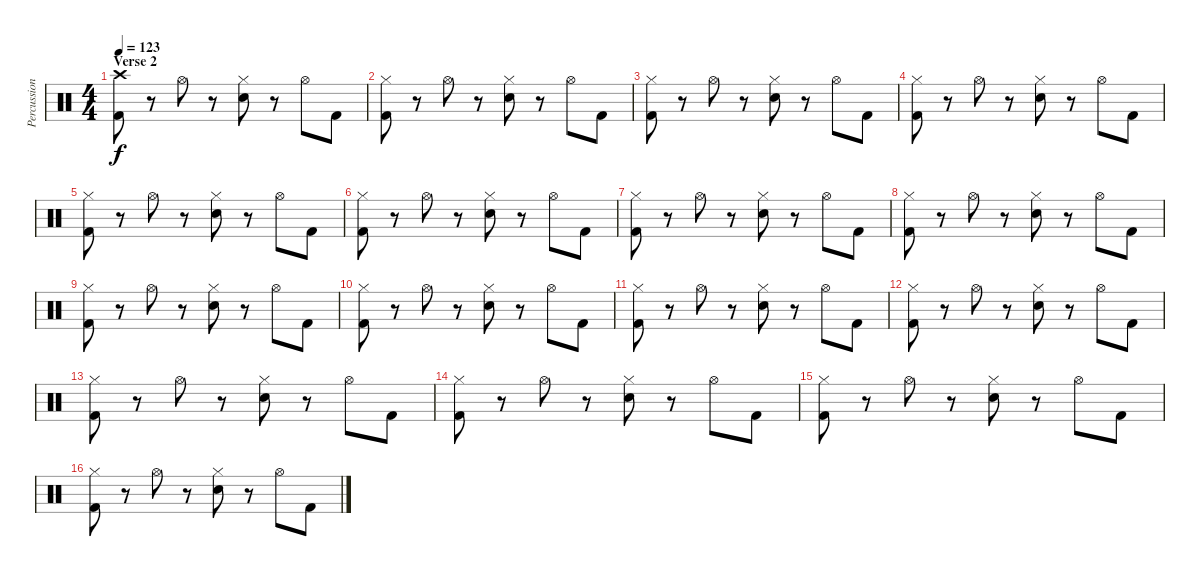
\track ("Percussion" "Percussion") {instrument percussion}
\staff {score}
\articulation defaults
\ts (4 4)
\section ("" "Verse 2")
\tempo 123
\clef neutral
\ks c
("Crash high (hit)" "Kick (hit) 2").8{dy f} r.8 "Hi-Hat (open)".8 r.8 ("Hi-Hat (closed)" "Snare (hit) 2").8 r.8 "Hi-Hat (open)".8 "Kick (hit) 2".8 |
("Hi-Hat (closed)" "Kick (hit) 2").8 r.8 "Hi-Hat (open)".8 r.8 ("Hi-Hat (closed)" "Snare (hit) 2").8 r.8 "Hi-Hat (open)".8 "Kick (hit) 2".8 |
("Hi-Hat (closed)" "Kick (hit) 2").8 r.8 "Hi-Hat (open)".8 r.8 ("Hi-Hat (closed)" "Snare (hit) 2").8 r.8 "Hi-Hat (open)".8 "Kick (hit) 2".8 |
("Hi-Hat (closed)" "Kick (hit) 2").8 r.8 "Hi-Hat (open)".8 r.8 ("Hi-Hat (closed)" "Snare (hit) 2").8 r.8 "Hi-Hat (open)".8 "Kick (hit) 2".8 |
("Hi-Hat (closed)" "Kick (hit) 2").8 r.8 "Hi-Hat (open)".8 r.8 ("Hi-Hat (closed)" "Snare (hit) 2").8 r.8 "Hi-Hat (open)".8 "Kick (hit) 2".8 |
("Hi-Hat (closed)" "Kick (hit) 2").8 r.8 "Hi-Hat (open)".8 r.8 ("Hi-Hat (closed)" "Snare (hit) 2").8 r.8 "Hi-Hat (open)".8 "Kick (hit) 2".8 |
("Hi-Hat (closed)" "Kick (hit) 2").8 r.8 "Hi-Hat (open)".8 r.8 ("Hi-Hat (closed)" "Snare (hit) 2").8 r.8 "Hi-Hat (open)".8 "Kick (hit) 2".8 |
("Hi-Hat (closed)" "Kick (hit) 2").8 r.8 "Hi-Hat (open)".8 r.8 ("Hi-Hat (closed)" "Snare (hit) 2").8 r.8 "Hi-Hat (open)".8 "Kick (hit) 2".8 |
("Hi-Hat (closed)" "Kick (hit) 2").8 r.8 "Hi-Hat (open)".8 r.8 ("Hi-Hat (closed)" "Snare (hit) 2").8 r.8 "Hi-Hat (open)".8 "Kick (hit) 2".8 |
("Hi-Hat (closed)" "Kick (hit) 2").8 r.8 "Hi-Hat (open)".8 r.8 ("Hi-Hat (closed)" "Snare (hit) 2").8 r.8 "Hi-Hat (open)".8 "Kick (hit) 2".8 |
("Hi-Hat (closed)" "Kick (hit) 2").8 r.8 "Hi-Hat (open)".8 r.8 ("Hi-Hat (closed)" "Snare (hit) 2").8 r.8 "Hi-Hat (open)".8 "Kick (hit) 2".8 |
("Hi-Hat (closed)" "Kick (hit) 2").8 r.8 "Hi-Hat (open)".8 r.8 ("Hi-Hat (closed)" "Snare (hit) 2").8 r.8 "Hi-Hat (open)".8 "Kick (hit) 2".8 |
("Hi-Hat (closed)" "Kick (hit) 2").8 r.8 "Hi-Hat (open)".8 r.8 ("Hi-Hat (closed)" "Snare (hit) 2").8 r.8 "Hi-Hat (open)".8 "Kick (hit) 2".8 |
("Hi-Hat (closed)" "Kick (hit) 2").8 r.8 "Hi-Hat (open)".8 r.8 ("Hi-Hat (closed)" "Snare (hit) 2").8 r.8 "Hi-Hat (open)".8 "Kick (hit) 2".8 |
("Hi-Hat (closed)" "Kick (hit) 2").8 r.8 "Hi-Hat (open)".8 r.8 ("Hi-Hat (closed)" "Snare (hit) 2").8 r.8 "Hi-Hat (open)".8 "Kick (hit) 2".8 |
("Hi-Hat (closed)" "Kick (hit) 2").8 r.8 "Hi-Hat (open)".8 r.8 ("Hi-Hat (closed)" "Snare (hit) 2").8 r.8 "Hi-Hat (open)".8 "Kick (hit) 2".8
